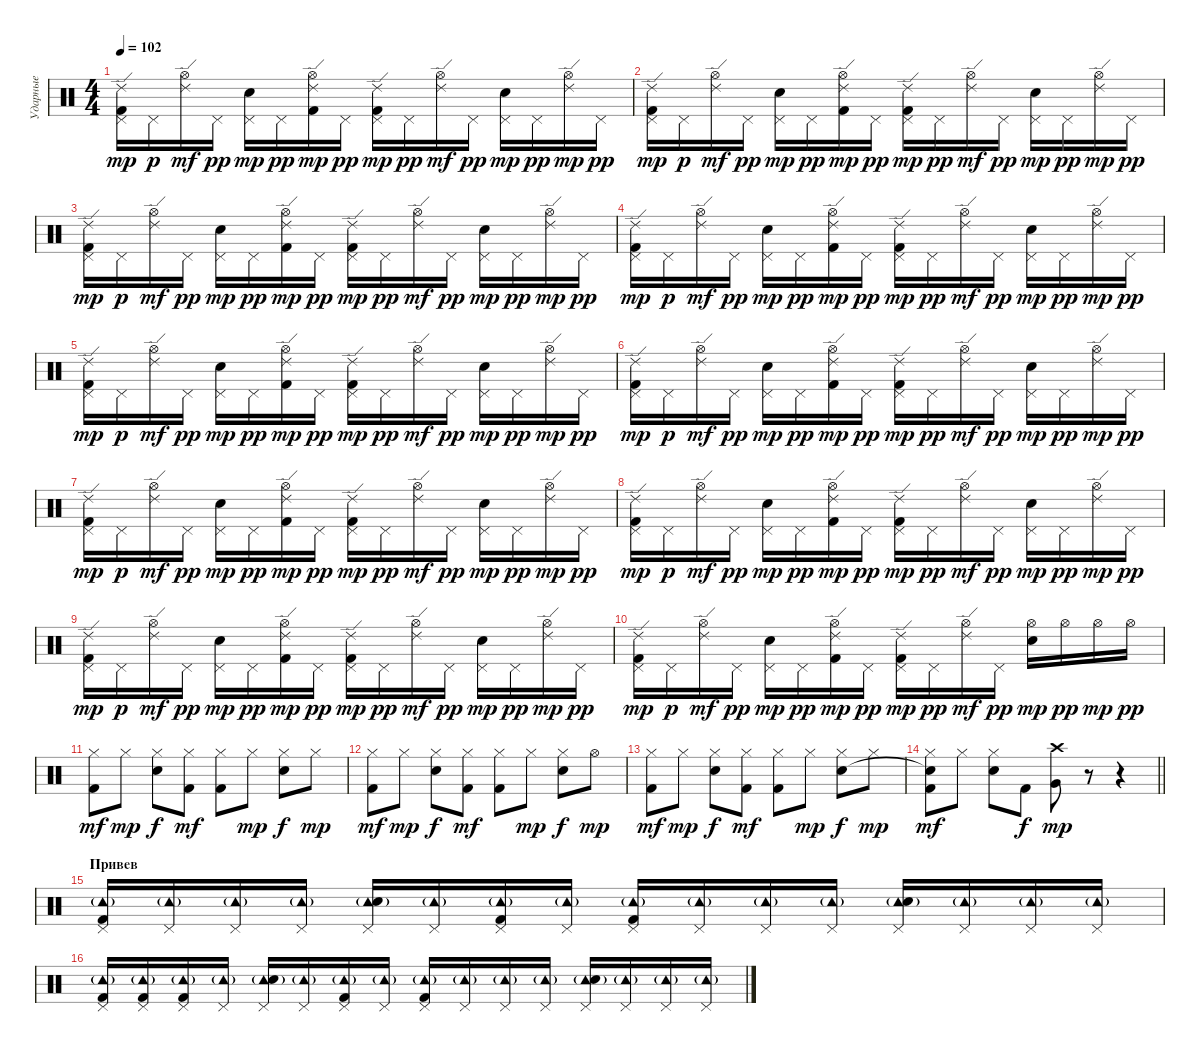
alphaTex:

\track ("Ударные" "Ударные") {instrument percussion}
\staff {score}
\articulation defaults
\ts (4 4)
\tempo 102
\clef neutral
\ks c
("Pedal Hi-Hat (hit)" "Ride (edge) 2" "Kick (hit) 2").16{dy mp} "Pedal Hi-Hat (hit)".16{dy p} ("Hi-Hat (open)" "Ride (edge) 2").16{dy mf} "Pedal Hi-Hat (hit)".16{dy pp} ("Pedal Hi-Hat (hit)" "Snare (hit) 2").16{dy mp} "Pedal Hi-Hat (hit)".16{dy pp} ("Hi-Hat (open)" "Ride (edge) 2" "Kick (hit) 2").16{dy mp} "Pedal Hi-Hat (hit)".16{dy pp} ("Pedal Hi-Hat (hit)" "Ride (edge) 2" "Kick (hit) 2").16{dy mp} "Pedal Hi-Hat (hit)".16{dy pp} ("Hi-Hat (open)" "Ride (edge) 2").16{dy mf} "Pedal Hi-Hat (hit)".16{dy pp} ("Pedal Hi-Hat (hit)" "Snare (hit) 2").16{dy mp} "Pedal Hi-Hat (hit)".16{dy pp} ("Hi-Hat (open)" "Ride (edge) 2").16{dy mp} "Pedal Hi-Hat (hit)".16{dy pp} |
("Pedal Hi-Hat (hit)" "Ride (edge) 2" "Kick (hit) 2").16{dy mp} "Pedal Hi-Hat (hit)".16{dy p} ("Hi-Hat (open)" "Ride (edge) 2").16{dy mf} "Pedal Hi-Hat (hit)".16{dy pp} ("Pedal Hi-Hat (hit)" "Snare (hit) 2").16{dy mp} "Pedal Hi-Hat (hit)".16{dy pp} ("Hi-Hat (open)" "Ride (edge) 2" "Kick (hit) 2").16{dy mp} "Pedal Hi-Hat (hit)".16{dy pp} ("Pedal Hi-Hat (hit)" "Ride (edge) 2" "Kick (hit) 2").16{dy mp} "Pedal Hi-Hat (hit)".16{dy pp} ("Hi-Hat (open)" "Ride (edge) 2").16{dy mf} "Pedal Hi-Hat (hit)".16{dy pp} ("Pedal Hi-Hat (hit)" "Snare (hit) 2").16{dy mp} "Pedal Hi-Hat (hit)".16{dy pp} ("Hi-Hat (open)" "Ride (edge) 2").16{dy mp} "Pedal Hi-Hat (hit)".16{dy pp} |
("Pedal Hi-Hat (hit)" "Ride (edge) 2" "Kick (hit) 2").16{dy mp} "Pedal Hi-Hat (hit)".16{dy p} ("Hi-Hat (open)" "Ride (edge) 2").16{dy mf} "Pedal Hi-Hat (hit)".16{dy pp} ("Pedal Hi-Hat (hit)" "Snare (hit) 2").16{dy mp} "Pedal Hi-Hat (hit)".16{dy pp} ("Hi-Hat (open)" "Ride (edge) 2" "Kick (hit) 2").16{dy mp} "Pedal Hi-Hat (hit)".16{dy pp} ("Pedal Hi-Hat (hit)" "Ride (edge) 2" "Kick (hit) 2").16{dy mp} "Pedal Hi-Hat (hit)".16{dy pp} ("Hi-Hat (open)" "Ride (edge) 2").16{dy mf} "Pedal Hi-Hat (hit)".16{dy pp} ("Pedal Hi-Hat (hit)" "Snare (hit) 2").16{dy mp} "Pedal Hi-Hat (hit)".16{dy pp} ("Hi-Hat (open)" "Ride (edge) 2").16{dy mp} "Pedal Hi-Hat (hit)".16{dy pp} |
("Pedal Hi-Hat (hit)" "Ride (edge) 2" "Kick (hit) 2").16{dy mp} "Pedal Hi-Hat (hit)".16{dy p} ("Hi-Hat (open)" "Ride (edge) 2").16{dy mf} "Pedal Hi-Hat (hit)".16{dy pp} ("Pedal Hi-Hat (hit)" "Snare (hit) 2").16{dy mp} "Pedal Hi-Hat (hit)".16{dy pp} ("Hi-Hat (open)" "Ride (edge) 2" "Kick (hit) 2").16{dy mp} "Pedal Hi-Hat (hit)".16{dy pp} ("Pedal Hi-Hat (hit)" "Ride (edge) 2" "Kick (hit) 2").16{dy mp} "Pedal Hi-Hat (hit)".16{dy pp} ("Hi-Hat (open)" "Ride (edge) 2").16{dy mf} "Pedal Hi-Hat (hit)".16{dy pp} ("Pedal Hi-Hat (hit)" "Snare (hit) 2").16{dy mp} "Pedal Hi-Hat (hit)".16{dy pp} ("Hi-Hat (open)" "Ride (edge) 2").16{dy mp} "Pedal Hi-Hat (hit)".16{dy pp} |
("Pedal Hi-Hat (hit)" "Ride (edge) 2" "Kick (hit) 2").16{dy mp} "Pedal Hi-Hat (hit)".16{dy p} ("Hi-Hat (open)" "Ride (edge) 2").16{dy mf} "Pedal Hi-Hat (hit)".16{dy pp} ("Pedal Hi-Hat (hit)" "Snare (hit) 2").16{dy mp} "Pedal Hi-Hat (hit)".16{dy pp} ("Hi-Hat (open)" "Ride (edge) 2" "Kick (hit) 2").16{dy mp} "Pedal Hi-Hat (hit)".16{dy pp} ("Pedal Hi-Hat (hit)" "Ride (edge) 2" "Kick (hit) 2").16{dy mp} "Pedal Hi-Hat (hit)".16{dy pp} ("Hi-Hat (open)" "Ride (edge) 2").16{dy mf} "Pedal Hi-Hat (hit)".16{dy pp} ("Pedal Hi-Hat (hit)" "Snare (hit) 2").16{dy mp} "Pedal Hi-Hat (hit)".16{dy pp} ("Hi-Hat (open)" "Ride (edge) 2").16{dy mp} "Pedal Hi-Hat (hit)".16{dy pp} |
("Pedal Hi-Hat (hit)" "Ride (edge) 2" "Kick (hit) 2").16{dy mp} "Pedal Hi-Hat (hit)".16{dy p} ("Hi-Hat (open)" "Ride (edge) 2").16{dy mf} "Pedal Hi-Hat (hit)".16{dy pp} ("Pedal Hi-Hat (hit)" "Snare (hit) 2").16{dy mp} "Pedal Hi-Hat (hit)".16{dy pp} ("Hi-Hat (open)" "Ride (edge) 2" "Kick (hit) 2").16{dy mp} "Pedal Hi-Hat (hit)".16{dy pp} ("Pedal Hi-Hat (hit)" "Ride (edge) 2" "Kick (hit) 2").16{dy mp} "Pedal Hi-Hat (hit)".16{dy pp} ("Hi-Hat (open)" "Ride (edge) 2").16{dy mf} "Pedal Hi-Hat (hit)".16{dy pp} ("Pedal Hi-Hat (hit)" "Snare (hit) 2").16{dy mp} "Pedal Hi-Hat (hit)".16{dy pp} ("Hi-Hat (open)" "Ride (edge) 2").16{dy mp} "Pedal Hi-Hat (hit)".16{dy pp} |
("Pedal Hi-Hat (hit)" "Ride (edge) 2" "Kick (hit) 2").16{dy mp} "Pedal Hi-Hat (hit)".16{dy p} ("Hi-Hat (open)" "Ride (edge) 2").16{dy mf} "Pedal Hi-Hat (hit)".16{dy pp} ("Pedal Hi-Hat (hit)" "Snare (hit) 2").16{dy mp} "Pedal Hi-Hat (hit)".16{dy pp} ("Hi-Hat (open)" "Ride (edge) 2" "Kick (hit) 2").16{dy mp} "Pedal Hi-Hat (hit)".16{dy pp} ("Pedal Hi-Hat (hit)" "Ride (edge) 2" "Kick (hit) 2").16{dy mp} "Pedal Hi-Hat (hit)".16{dy pp} ("Hi-Hat (open)" "Ride (edge) 2").16{dy mf} "Pedal Hi-Hat (hit)".16{dy pp} ("Pedal Hi-Hat (hit)" "Snare (hit) 2").16{dy mp} "Pedal Hi-Hat (hit)".16{dy pp} ("Hi-Hat (open)" "Ride (edge) 2").16{dy mp} "Pedal Hi-Hat (hit)".16{dy pp} |
("Pedal Hi-Hat (hit)" "Ride (edge) 2" "Kick (hit) 2").16{dy mp} "Pedal Hi-Hat (hit)".16{dy p} ("Hi-Hat (open)" "Ride (edge) 2").16{dy mf} "Pedal Hi-Hat (hit)".16{dy pp} ("Pedal Hi-Hat (hit)" "Snare (hit) 2").16{dy mp} "Pedal Hi-Hat (hit)".16{dy pp} ("Hi-Hat (open)" "Ride (edge) 2" "Kick (hit) 2").16{dy mp} "Pedal Hi-Hat (hit)".16{dy pp} ("Pedal Hi-Hat (hit)" "Ride (edge) 2" "Kick (hit) 2").16{dy mp} "Pedal Hi-Hat (hit)".16{dy pp} ("Hi-Hat (open)" "Ride (edge) 2").16{dy mf} "Pedal Hi-Hat (hit)".16{dy pp} ("Pedal Hi-Hat (hit)" "Snare (hit) 2").16{dy mp} "Pedal Hi-Hat (hit)".16{dy pp} ("Hi-Hat (open)" "Ride (edge) 2").16{dy mp} "Pedal Hi-Hat (hit)".16{dy pp} |
("Pedal Hi-Hat (hit)" "Ride (edge) 2" "Kick (hit) 2").16{dy mp} "Pedal Hi-Hat (hit)".16{dy p} ("Hi-Hat (open)" "Ride (edge) 2").16{dy mf} "Pedal Hi-Hat (hit)".16{dy pp} ("Pedal Hi-Hat (hit)" "Snare (hit) 2").16{dy mp} "Pedal Hi-Hat (hit)".16{dy pp} ("Hi-Hat (open)" "Ride (edge) 2" "Kick (hit) 2").16{dy mp} "Pedal Hi-Hat (hit)".16{dy pp} ("Pedal Hi-Hat (hit)" "Ride (edge) 2" "Kick (hit) 2").16{dy mp} "Pedal Hi-Hat (hit)".16{dy pp} ("Hi-Hat (open)" "Ride (edge) 2").16{dy mf} "Pedal Hi-Hat (hit)".16{dy pp} ("Pedal Hi-Hat (hit)" "Snare (hit) 2").16{dy mp} "Pedal Hi-Hat (hit)".16{dy pp} ("Hi-Hat (open)" "Ride (edge) 2").16{dy mp} "Pedal Hi-Hat (hit)".16{dy pp} |
("Pedal Hi-Hat (hit)" "Ride (edge) 2" "Kick (hit) 2").16{dy mp} "Pedal Hi-Hat (hit)".16{dy p} ("Hi-Hat (open)" "Ride (edge) 2").16{dy mf} "Pedal Hi-Hat (hit)".16{dy pp} ("Pedal Hi-Hat (hit)" "Snare (hit) 2").16{dy mp} "Pedal Hi-Hat (hit)".16{dy pp} ("Hi-Hat (open)" "Ride (edge) 2" "Kick (hit) 2").16{dy mp} "Pedal Hi-Hat (hit)".16{dy pp} ("Pedal Hi-Hat (hit)" "Ride (edge) 2" "Kick (hit) 2").16{dy mp} "Pedal Hi-Hat (hit)".16{dy pp} ("Hi-Hat (open)" "Ride (edge) 2").16{dy mf} "Pedal Hi-Hat (hit)".16{dy pp} ("Hi-Hat (open)" "Snare (hit) 2").16{dy mp} "Hi-Hat (open)".16{dy pp} "Hi-Hat (open)".16{dy mp} "Hi-Hat (open)".16{dy pp} |
("Hi-Hat (closed)" "Kick (hit) 2").8{dy mf} "Hi-Hat (closed)".8{dy mp} ("Hi-Hat (closed)" "Snare (hit) 2").8{dy f} ("Hi-Hat (closed)" "Kick (hit) 2").8{dy mf} ("Hi-Hat (closed)" "Kick (hit) 2").8 "Hi-Hat (closed)".8{dy mp} ("Hi-Hat (closed)" "Snare (hit) 2").8{dy f} "Hi-Hat (closed)".8{dy mp} |
("Hi-Hat (closed)" "Kick (hit) 2").8{dy mf} "Hi-Hat (closed)".8{dy mp} ("Hi-Hat (closed)" "Snare (hit) 2").8{dy f} ("Hi-Hat (closed)" "Kick (hit) 2").8{dy mf} ("Hi-Hat (closed)" "Kick (hit) 2").8 "Hi-Hat (closed)".8{dy mp} ("Hi-Hat (closed)" "Snare (hit) 2").8{dy f} "Hi-Hat (open)".8{dy mp} |
("Hi-Hat (closed)" "Kick (hit) 2").8{dy mf} "Hi-Hat (closed)".8{dy mp} ("Hi-Hat (closed)" "Snare (hit) 2").8{dy f} ("Hi-Hat (closed)" "Kick (hit) 2").8{dy mf} ("Hi-Hat (closed)" "Kick (hit) 2").8 "Hi-Hat (closed)".8{dy mp} ("Hi-Hat (closed)" "Snare (hit) 2").8{dy f} "Hi-Hat (closed)".8{dy mp} |
\barLineRight lightlight
("Hi-Hat (closed)" "Snare (hit)"{t} "Kick (hit) 2").8{dy mf} "Hi-Hat (closed)".8 ("Hi-Hat (closed)" "Snare (hit) 2").8 "Kick (hit) 2".8{dy f} ("Crash high (hit)" "Very Low Tom (hit)").8{dy mp} r.8 r.4 |
\section ("" "Привев")
("Pedal Hi-Hat (hit)" "Tambourine (hit)"{g} "Kick (hit) 2").16 ("Pedal Hi-Hat (hit)" "Tambourine (hit)"{g}).16 ("Pedal Hi-Hat (hit)" "Tambourine (hit)"{g}).16 ("Pedal Hi-Hat (hit)" "Tambourine (hit)"{g}).16 ("Pedal Hi-Hat (hit)" "Tambourine (hit)"{g} "Hand Clap (hit)").16 ("Pedal Hi-Hat (hit)" "Tambourine (hit)"{g}).16 ("Pedal Hi-Hat (hit)" "Tambourine (hit)"{g} "Kick (hit) 2").16 ("Pedal Hi-Hat (hit)" "Tambourine (hit)"{g}).16 ("Pedal Hi-Hat (hit)" "Tambourine (hit)"{g} "Kick (hit) 2").16 ("Pedal Hi-Hat (hit)" "Tambourine (hit)"{g}).16 ("Pedal Hi-Hat (hit)" "Tambourine (hit)"{g}).16 ("Pedal Hi-Hat (hit)" "Tambourine (hit)"{g}).16 ("Pedal Hi-Hat (hit)" "Tambourine (hit)"{g} "Hand Clap (hit)").16 ("Pedal Hi-Hat (hit)" "Tambourine (hit)"{g}).16 ("Pedal Hi-Hat (hit)" "Tambourine (hit)"{g}).16 ("Pedal Hi-Hat (hit)" "Tambourine (hit)"{g}).16 |
("Pedal Hi-Hat (hit)" "Tambourine (hit)"{g} "Kick (hit) 2").16 ("Pedal Hi-Hat (hit)" "Tambourine (hit)"{g} "Kick (hit) 2").16 ("Pedal Hi-Hat (hit)" "Tambourine (hit)"{g} "Kick (hit) 2").16 ("Pedal Hi-Hat (hit)" "Tambourine (hit)"{g}).16 ("Pedal Hi-Hat (hit)" "Tambourine (hit)"{g} "Hand Clap (hit)").16 ("Pedal Hi-Hat (hit)" "Tambourine (hit)"{g}).16 ("Pedal Hi-Hat (hit)" "Tambourine (hit)"{g} "Kick (hit) 2").16 ("Pedal Hi-Hat (hit)" "Tambourine (hit)"{g}).16 ("Pedal Hi-Hat (hit)" "Tambourine (hit)"{g} "Kick (hit) 2").16 ("Pedal Hi-Hat (hit)" "Tambourine (hit)"{g}).16 ("Pedal Hi-Hat (hit)" "Tambourine (hit)"{g}).16 ("Pedal Hi-Hat (hit)" "Tambourine (hit)"{g}).16 ("Pedal Hi-Hat (hit)" "Tambourine (hit)"{g} "Hand Clap (hit)").16 ("Pedal Hi-Hat (hit)" "Tambourine (hit)"{g}).16 ("Pedal Hi-Hat (hit)" "Tambourine (hit)"{g}).16 ("Pedal Hi-Hat (hit)" "Tambourine (hit)"{g}).16
